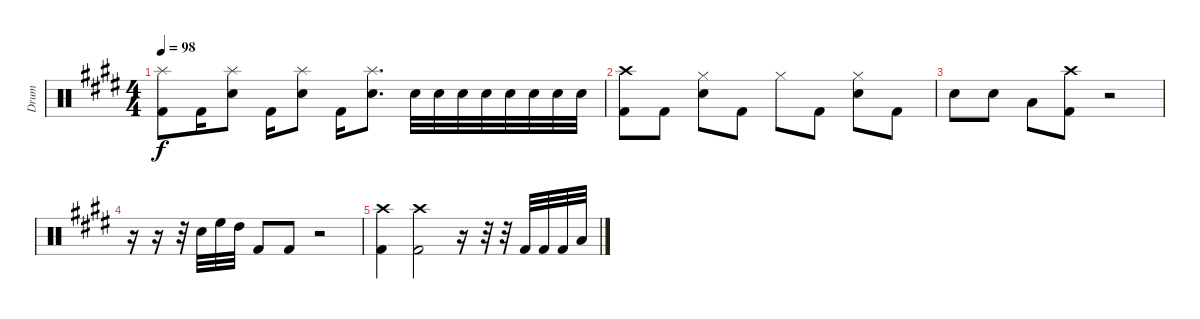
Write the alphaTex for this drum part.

\track ("Drum" "Drum") {instrument percussion}
\staff {score}
\articulation defaults
\ts (4 4)
\tempo 98
\clef neutral
\ks c#minor
("Kick (hit) 2" "Splash (hit)").8{dy f} "Kick (hit) 2".16 ("Snare (hit) 2" "Splash (hit)").8 "Kick (hit) 2".16 ("Snare (hit) 2" "Splash (hit)").8 "Kick (hit) 2".16 ("Snare (hit) 2" "Splash (hit)").8{d} "Snare (hit) 2".32 "Snare (hit) 2".32 "Snare (hit) 2".32 "Snare (hit) 2".32 "Snare (hit) 2".32 "Snare (hit) 2".32 "Snare (hit) 2".32 "Snare (hit) 2".32 |
("Kick (hit) 2" "Crash high (hit)").8 "Kick (hit) 2".8 ("Snare (hit) 2" "Hi-Hat (closed)").8 "Kick (hit) 2".8 "Hi-Hat (closed)".8 "Kick (hit) 2".8 ("Snare (hit) 2" "Hi-Hat (closed)").8 "Kick (hit) 2".8 |
\ks e "Snare (hit) 2".8 "Snare (hit) 2".8 "Low Tom (hit)".8
("Kick (hit) 2" "Crash high (hit)").8 r.2 |
\ks c#minor
r.16 r.16 r.32 "Snare (hit) 2".32 "High Floor Tom (hit)".32 "High Tom (hit)".32 "Kick (hit) 2".8 "Kick (hit) 2".8 r.2 |
("Kick (hit) 2" "Crash high (hit)").4 ("Kick (hit) 2" "Crash high (hit)").2 r.16 r.32 r.32 "Kick (hit) 2".32 "Kick (hit) 2".32 "Kick (hit) 2".32 "Low Tom (hit)".32
